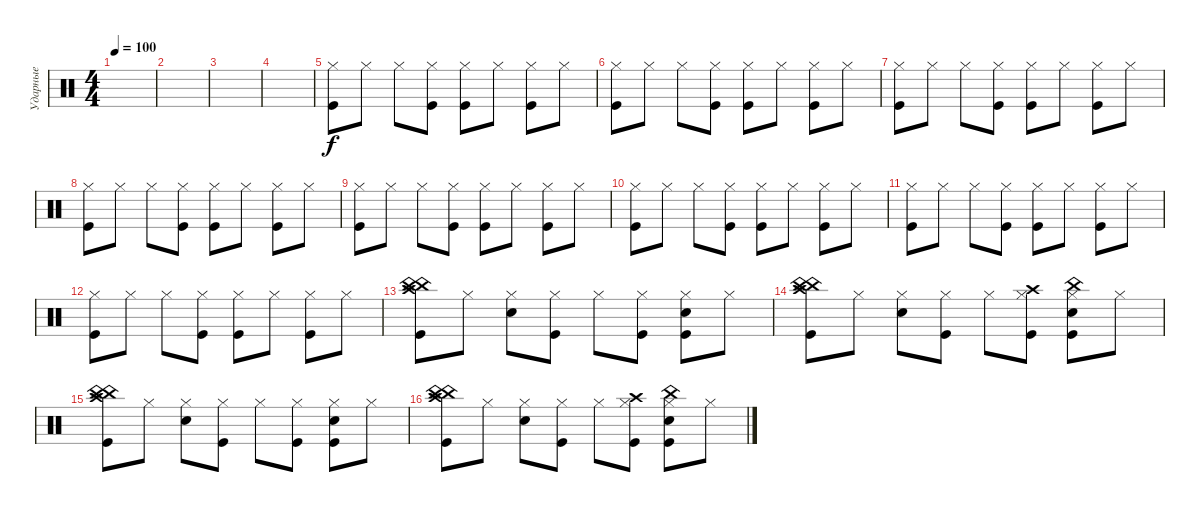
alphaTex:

\track ("Ударные" "Ударные") {instrument percussion}
\staff {score}
\articulation defaults
\ts (4 4)
\tempo 100
\clef neutral
\ks c
|
|
|
|
("Hi-Hat (closed)" "Kick (hit)").8 "Hi-Hat (closed)".8 "Hi-Hat (closed)".8 ("Hi-Hat (closed)" "Kick (hit)").8 ("Hi-Hat (closed)" "Kick (hit)").8 "Hi-Hat (closed)".8 ("Hi-Hat (closed)" "Kick (hit)").8 "Hi-Hat (closed)".8 |
("Hi-Hat (closed)" "Kick (hit)").8 "Hi-Hat (closed)".8 "Hi-Hat (closed)".8 ("Hi-Hat (closed)" "Kick (hit)").8 ("Hi-Hat (closed)" "Kick (hit)").8 "Hi-Hat (closed)".8 ("Hi-Hat (closed)" "Kick (hit)").8 "Hi-Hat (closed)".8 |
("Hi-Hat (closed)" "Kick (hit)").8 "Hi-Hat (closed)".8 "Hi-Hat (closed)".8 ("Hi-Hat (closed)" "Kick (hit)").8 ("Hi-Hat (closed)" "Kick (hit)").8 "Hi-Hat (closed)".8 ("Hi-Hat (closed)" "Kick (hit)").8 "Hi-Hat (closed)".8 |
("Hi-Hat (closed)" "Kick (hit)").8 "Hi-Hat (closed)".8 "Hi-Hat (closed)".8 ("Hi-Hat (closed)" "Kick (hit)").8 ("Hi-Hat (closed)" "Kick (hit)").8 "Hi-Hat (closed)".8 ("Hi-Hat (closed)" "Kick (hit)").8 "Hi-Hat (closed)".8 |
("Hi-Hat (closed)" "Kick (hit)").8 "Hi-Hat (closed)".8 "Hi-Hat (closed)".8 ("Hi-Hat (closed)" "Kick (hit)").8 ("Hi-Hat (closed)" "Kick (hit)").8 "Hi-Hat (closed)".8 ("Hi-Hat (closed)" "Kick (hit)").8 "Hi-Hat (closed)".8 |
("Hi-Hat (closed)" "Kick (hit)").8 "Hi-Hat (closed)".8 "Hi-Hat (closed)".8 ("Hi-Hat (closed)" "Kick (hit)").8 ("Hi-Hat (closed)" "Kick (hit)").8 "Hi-Hat (closed)".8 ("Hi-Hat (closed)" "Kick (hit)").8 "Hi-Hat (closed)".8 |
("Hi-Hat (closed)" "Kick (hit)").8 "Hi-Hat (closed)".8 "Hi-Hat (closed)".8 ("Hi-Hat (closed)" "Kick (hit)").8 ("Hi-Hat (closed)" "Kick (hit)").8 "Hi-Hat (closed)".8 ("Hi-Hat (closed)" "Kick (hit)").8 "Hi-Hat (closed)".8 |
("Hi-Hat (closed)" "Kick (hit)").8 "Hi-Hat (closed)".8 "Hi-Hat (closed)".8 ("Hi-Hat (closed)" "Kick (hit)").8 ("Hi-Hat (closed)" "Kick (hit)").8 "Hi-Hat (closed)".8 ("Hi-Hat (closed)" "Kick (hit)").8 "Hi-Hat (closed)".8 |
("China (hit)" "Crash high (hit)" "China (hit)" "Kick (hit)").8 "Hi-Hat (closed)".8 ("Hi-Hat (closed)" "Snare (hit) 2").8 ("Hi-Hat (closed)" "Kick (hit)").8 "Hi-Hat (closed)".8 ("Hi-Hat (closed)" "Kick (hit)").8 ("Hi-Hat (closed)" "Kick (hit)" "Snare (hit) 2").8 "Hi-Hat (closed)".8 |
("China (hit)" "Crash high (hit)" "China (hit)" "Kick (hit)").8 "Hi-Hat (closed)".8 ("Hi-Hat (closed)" "Snare (hit) 2").8 ("Hi-Hat (closed)" "Kick (hit)").8 "Hi-Hat (closed)".8 ("Hi-Hat (closed)" "Kick (hit)" "Crash high (hit)").8 ("Hi-Hat (closed)" "Kick (hit)" "Snare (hit) 2" "China (hit)").8 "Hi-Hat (closed)".8 |
("China (hit)" "Crash high (hit)" "China (hit)" "Kick (hit)").8 "Hi-Hat (closed)".8 ("Hi-Hat (closed)" "Snare (hit) 2").8 ("Hi-Hat (closed)" "Kick (hit)").8 "Hi-Hat (closed)".8 ("Hi-Hat (closed)" "Kick (hit)").8 ("Hi-Hat (closed)" "Kick (hit)" "Snare (hit) 2").8 "Hi-Hat (closed)".8 |
("China (hit)" "Crash high (hit)" "China (hit)" "Kick (hit)").8 "Hi-Hat (closed)".8 ("Hi-Hat (closed)" "Snare (hit) 2").8 ("Hi-Hat (closed)" "Kick (hit)").8 "Hi-Hat (closed)".8 ("Hi-Hat (closed)" "Kick (hit)" "Crash high (hit)").8 ("Hi-Hat (closed)" "Kick (hit)" "Snare (hit) 2" "China (hit)").8 "Hi-Hat (closed)".8
